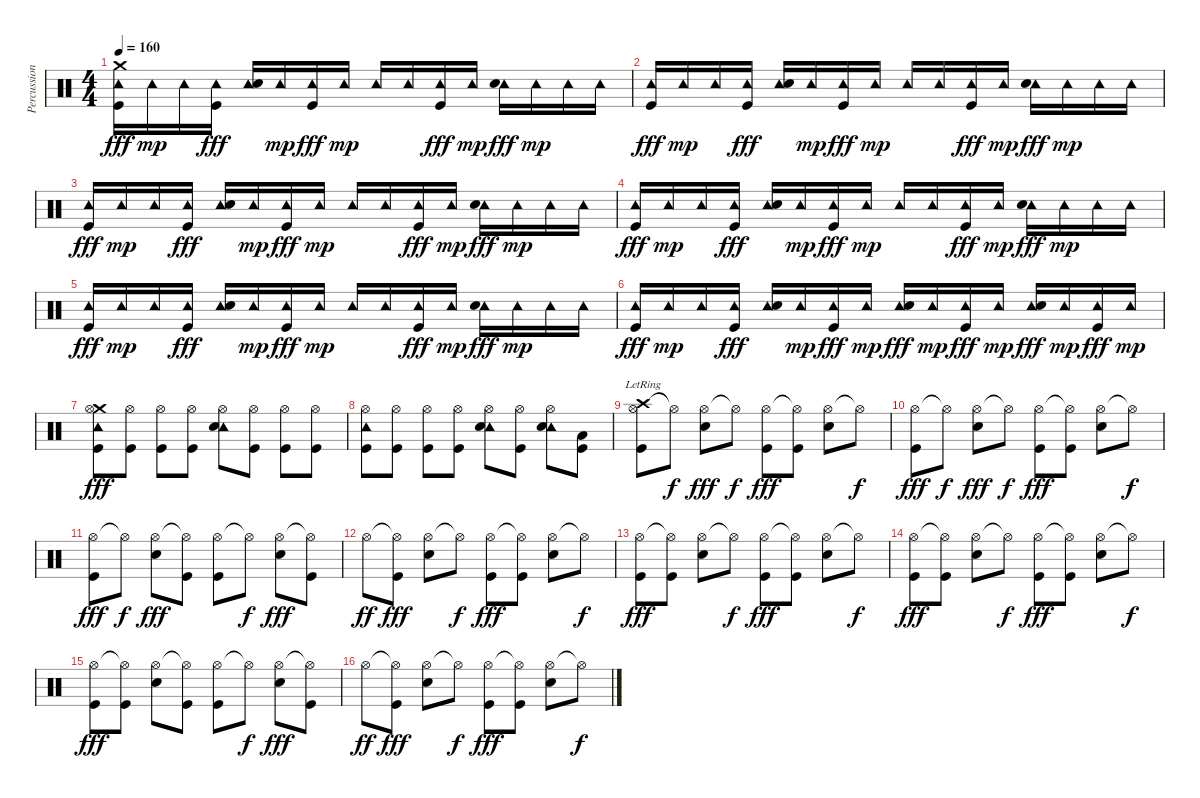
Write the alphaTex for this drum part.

\track ("Percussion" "Percussion") {instrument percussion}
\staff {score}
\articulation defaults
\ts (4 4)
\tempo 160
\clef neutral
\ks c
("Crash medium (hit)" "Tambourine (hit)" "Kick (hit)").16{dy fff} "Tambourine (hit)".16{dy mp} "Tambourine (hit)".16 ("Tambourine (hit)" "Kick (hit)").16{dy fff} ("Tambourine (hit)" "Snare (hit) 2").16 "Tambourine (hit)".16{dy mp} ("Tambourine (hit)" "Kick (hit)").16{dy fff} "Tambourine (hit)".16{dy mp} "Tambourine (hit)".16 "Tambourine (hit)".16 ("Tambourine (hit)" "Kick (hit)").16{dy fff} "Tambourine (hit)".16{dy mp} ("Tambourine (hit)" "Snare (hit) 2").16{dy fff} "Tambourine (hit)".16{dy mp} "Tambourine (hit)".16 "Tambourine (hit)".16 |
("Tambourine (hit)" "Kick (hit)").16{dy fff} "Tambourine (hit)".16{dy mp} "Tambourine (hit)".16 ("Tambourine (hit)" "Kick (hit)").16{dy fff} ("Tambourine (hit)" "Snare (hit) 2").16 "Tambourine (hit)".16{dy mp} ("Tambourine (hit)" "Kick (hit)").16{dy fff} "Tambourine (hit)".16{dy mp} "Tambourine (hit)".16 "Tambourine (hit)".16 ("Tambourine (hit)" "Kick (hit)").16{dy fff} "Tambourine (hit)".16{dy mp} ("Tambourine (hit)" "Snare (hit) 2").16{dy fff} "Tambourine (hit)".16{dy mp} "Tambourine (hit)".16 "Tambourine (hit)".16 |
("Tambourine (hit)" "Kick (hit)").16{dy fff} "Tambourine (hit)".16{dy mp} "Tambourine (hit)".16 ("Tambourine (hit)" "Kick (hit)").16{dy fff} ("Tambourine (hit)" "Snare (hit) 2").16 "Tambourine (hit)".16{dy mp} ("Tambourine (hit)" "Kick (hit)").16{dy fff} "Tambourine (hit)".16{dy mp} "Tambourine (hit)".16 "Tambourine (hit)".16 ("Tambourine (hit)" "Kick (hit)").16{dy fff} "Tambourine (hit)".16{dy mp} ("Tambourine (hit)" "Snare (hit) 2").16{dy fff} "Tambourine (hit)".16{dy mp} "Tambourine (hit)".16 "Tambourine (hit)".16 |
("Tambourine (hit)" "Kick (hit)").16{dy fff} "Tambourine (hit)".16{dy mp} "Tambourine (hit)".16 ("Tambourine (hit)" "Kick (hit)").16{dy fff} ("Tambourine (hit)" "Snare (hit) 2").16 "Tambourine (hit)".16{dy mp} ("Tambourine (hit)" "Kick (hit)").16{dy fff} "Tambourine (hit)".16{dy mp} "Tambourine (hit)".16 "Tambourine (hit)".16 ("Tambourine (hit)" "Kick (hit)").16{dy fff} "Tambourine (hit)".16{dy mp} ("Tambourine (hit)" "Snare (hit) 2").16{dy fff} "Tambourine (hit)".16{dy mp} "Tambourine (hit)".16 "Tambourine (hit)".16 |
("Tambourine (hit)" "Kick (hit)").16{dy fff} "Tambourine (hit)".16{dy mp} "Tambourine (hit)".16 ("Tambourine (hit)" "Kick (hit)").16{dy fff} ("Tambourine (hit)" "Snare (hit) 2").16 "Tambourine (hit)".16{dy mp} ("Tambourine (hit)" "Kick (hit)").16{dy fff} "Tambourine (hit)".16{dy mp} "Tambourine (hit)".16 "Tambourine (hit)".16 ("Tambourine (hit)" "Kick (hit)").16{dy fff} "Tambourine (hit)".16{dy mp} ("Tambourine (hit)" "Snare (hit) 2").16{dy fff} "Tambourine (hit)".16{dy mp} "Tambourine (hit)".16 "Tambourine (hit)".16 |
("Tambourine (hit)" "Kick (hit)").16{dy fff} "Tambourine (hit)".16{dy mp} "Tambourine (hit)".16 ("Tambourine (hit)" "Kick (hit)").16{dy fff} ("Tambourine (hit)" "Snare (hit) 2").16 "Tambourine (hit)".16{dy mp} ("Tambourine (hit)" "Kick (hit)").16{dy fff} "Tambourine (hit)".16{dy mp} ("Tambourine (hit)" "Snare (hit) 2").16{dy fff} "Tambourine (hit)".16{dy mp} ("Tambourine (hit)" "Kick (hit)").16{dy fff} "Tambourine (hit)".16{dy mp} ("Tambourine (hit)" "Snare (hit) 2").16{dy fff} "Tambourine (hit)".16{dy mp} ("Tambourine (hit)" "Kick (hit)").16{dy fff} "Tambourine (hit)".16{dy mp} |
("Crash medium (hit)" "Tambourine (hit)" "Hi-Hat (open)" "Kick (hit)").8{dy fff} ("Hi-Hat (open)" "Kick (hit)").8 ("Hi-Hat (open)" "Kick (hit)").8 ("Hi-Hat (open)" "Kick (hit)").8 ("Tambourine (hit)" "Hi-Hat (open)" "Snare (hit) 2").8 ("Hi-Hat (open)" "Kick (hit)").8 ("Hi-Hat (open)" "Kick (hit)").8 ("Hi-Hat (open)" "Kick (hit)").8 |
("Tambourine (hit)" "Hi-Hat (open)" "Kick (hit)").8 ("Hi-Hat (open)" "Kick (hit)").8 ("Hi-Hat (open)" "Kick (hit)").8 ("Hi-Hat (open)" "Kick (hit)").8 ("Tambourine (hit)" "Hi-Hat (open)" "Snare (hit) 2").8 ("Hi-Hat (open)" "Kick (hit)").8 ("Tambourine (hit)" "Hi-Hat (open)" "Snare (hit) 2").8 ("Low Tom (hit)" "Kick (hit)").8 |
("Crash high (hit)"{lr} "Hi-Hat (open)" "Kick (hit)").8 "Hi-Hat (open)"{t}.8{dy f} ("Hi-Hat (open)" "Snare (hit) 2").8{dy fff} "Hi-Hat (open)"{t}.8{dy f} ("Hi-Hat (open)" "Kick (hit)").8{dy fff} ("Hi-Hat (open)"{t} "Kick (hit)").8 ("Hi-Hat (open)" "Snare (hit) 2").8 "Hi-Hat (open)"{t}.8{dy f} |
("Hi-Hat (open)" "Kick (hit)").8{dy fff} "Hi-Hat (open)"{t}.8{dy f} ("Hi-Hat (open)" "Snare (hit) 2").8{dy fff} "Hi-Hat (open)"{t}.8{dy f} ("Hi-Hat (open)" "Kick (hit)").8{dy fff} ("Hi-Hat (open)"{t} "Kick (hit)").8 ("Hi-Hat (open)" "Snare (hit) 2").8 "Hi-Hat (open)"{t}.8{dy f} |
("Hi-Hat (open)" "Kick (hit)").8{dy fff} "Hi-Hat (open)"{t}.8{dy f} ("Hi-Hat (open)" "Snare (hit) 2").8{dy fff} ("Hi-Hat (open)"{t} "Kick (hit)").8 ("Hi-Hat (open)" "Kick (hit)").8 "Hi-Hat (open)"{t}.8{dy f} ("Hi-Hat (open)" "Snare (hit) 2").8{dy fff} ("Hi-Hat (open)"{t} "Kick (hit)").8 |
"Hi-Hat (open)".8{dy ff} ("Hi-Hat (open)"{t} "Kick (hit)").8{dy fff} ("Hi-Hat (open)" "Snare (hit) 2").8 "Hi-Hat (open)"{t}.8{dy f} ("Hi-Hat (open)" "Kick (hit)").8{dy fff} ("Hi-Hat (open)"{t} "Kick (hit)").8 ("Hi-Hat (open)" "Snare (hit) 2").8 "Hi-Hat (open)"{t}.8{dy f} |
("Hi-Hat (open)" "Kick (hit)").8{dy fff} ("Hi-Hat (open)"{t} "Kick (hit)").8 ("Hi-Hat (open)" "Snare (hit) 2").8 "Hi-Hat (open)"{t}.8{dy f} ("Hi-Hat (open)" "Kick (hit)").8{dy fff} ("Hi-Hat (open)"{t} "Kick (hit)").8 ("Hi-Hat (open)" "Snare (hit) 2").8 "Hi-Hat (open)"{t}.8{dy f} |
("Hi-Hat (open)" "Kick (hit)").8{dy fff} ("Hi-Hat (open)"{t} "Kick (hit)").8 ("Hi-Hat (open)" "Snare (hit) 2").8 "Hi-Hat (open)"{t}.8{dy f} ("Hi-Hat (open)" "Kick (hit)").8{dy fff} ("Hi-Hat (open)"{t} "Kick (hit)").8 ("Hi-Hat (open)" "Snare (hit) 2").8 "Hi-Hat (open)"{t}.8{dy f} |
("Hi-Hat (open)" "Kick (hit)").8{dy fff} ("Hi-Hat (open)"{t} "Kick (hit)").8 ("Hi-Hat (open)" "Snare (hit) 2").8 ("Hi-Hat (open)"{t} "Kick (hit)").8 ("Hi-Hat (open)" "Kick (hit)").8 "Hi-Hat (open)"{t}.8{dy f} ("Hi-Hat (open)" "Snare (hit) 2").8{dy fff} ("Hi-Hat (open)"{t} "Kick (hit)").8 |
"Hi-Hat (open)".8{dy ff} ("Hi-Hat (open)"{t} "Kick (hit)").8{dy fff} ("Hi-Hat (open)" "Snare (hit) 2").8 "Hi-Hat (open)"{t}.8{dy f} ("Hi-Hat (open)" "Kick (hit)").8{dy fff} ("Hi-Hat (open)"{t} "Kick (hit)").8 ("Hi-Hat (open)" "Snare (hit) 2").8 "Hi-Hat (open)"{t}.8{dy f}
